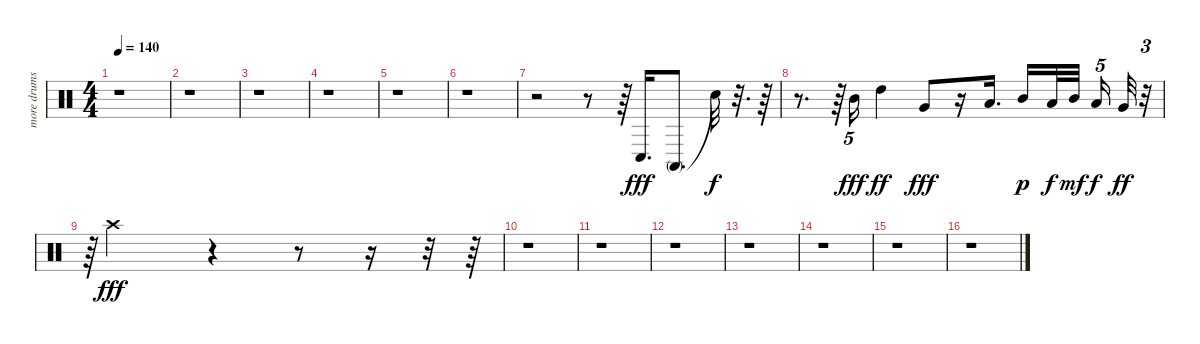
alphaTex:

\track ("more drums" "more drums") {instrument percussion}
\staff {score}
\articulation defaults
\ts (4 4)
\tempo 140
\clef neutral
\ks c
r.1{dy fff} |
r.1 |
r.1 |
r.1 |
r.1 |
r.1 |
r.2 r.8 r.64 "Conga low (hit)".16{d} "Conga high (mute)".8{d} "Snare (hit)"{t}.32{dy f} r.32{d} r.64 |
r.8{d} r.64 "Mid Tom (hit)".16{tu (5 4) dy fff} "High Tom (hit)".4{dy ff} "Very Low Tom (hit)".8{dy fff} r.16 "Low Tom (hit)".16{d} "Mid Tom (hit)".16{dy p} "Low Tom (hit)".32{dy f} "Mid Tom (hit)".32{dy mf} "Low Tom (hit)".16{tu (5 4) dy f} "Very Low Tom (hit)".32{dy ff} r.32{tu (3 2)} |
r.64{tu (3 2)} "Crash high (hit)".2{dy fff} r.4 r.8 r.16 r.32 r.64 |
r.1 |
r.1 |
r.1 |
r.1 |
r.1 |
r.1 |
r.1
